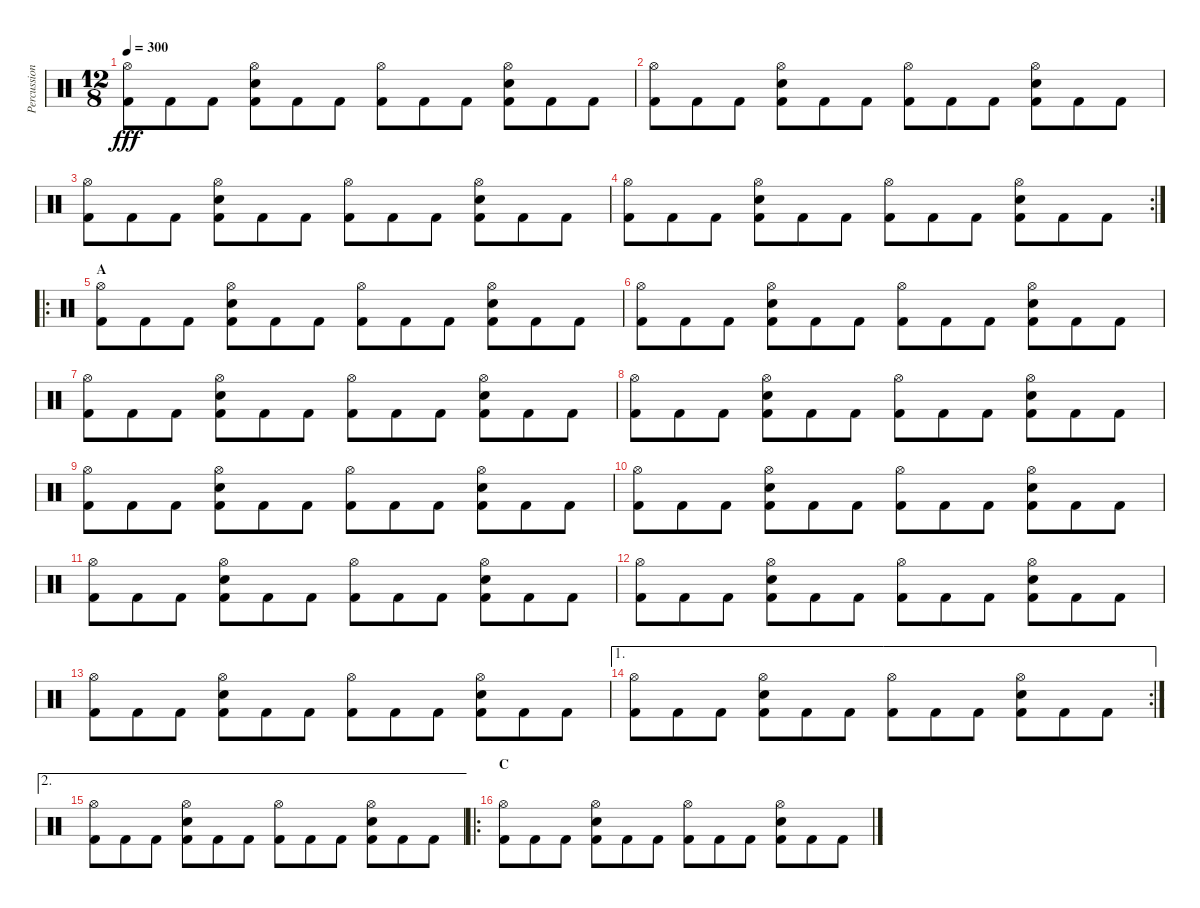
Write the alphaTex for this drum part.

\track ("Percussion" "Percussion") {instrument percussion}
\staff {score}
\articulation defaults
\ts (12 8)
\tempo 300
\clef neutral
\ks c
("Hi-Hat (open)" "Kick (hit) 2").8{dy fff} "Kick (hit) 2".8 "Kick (hit) 2".8 ("Hi-Hat (open)" "Snare (hit) 2" "Kick (hit) 2").8 "Kick (hit) 2".8 "Kick (hit) 2".8 ("Hi-Hat (open)" "Kick (hit) 2").8 "Kick (hit) 2".8 "Kick (hit) 2".8 ("Hi-Hat (open)" "Snare (hit) 2" "Kick (hit) 2").8 "Kick (hit) 2".8 "Kick (hit) 2".8 |
("Hi-Hat (open)" "Kick (hit) 2").8 "Kick (hit) 2".8 "Kick (hit) 2".8 ("Hi-Hat (open)" "Snare (hit) 2" "Kick (hit) 2").8 "Kick (hit) 2".8 "Kick (hit) 2".8 ("Hi-Hat (open)" "Kick (hit) 2").8 "Kick (hit) 2".8 "Kick (hit) 2".8 ("Hi-Hat (open)" "Snare (hit) 2" "Kick (hit) 2").8 "Kick (hit) 2".8 "Kick (hit) 2".8 |
("Hi-Hat (open)" "Kick (hit) 2").8 "Kick (hit) 2".8 "Kick (hit) 2".8 ("Hi-Hat (open)" "Snare (hit) 2" "Kick (hit) 2").8 "Kick (hit) 2".8 "Kick (hit) 2".8 ("Hi-Hat (open)" "Kick (hit) 2").8 "Kick (hit) 2".8 "Kick (hit) 2".8 ("Hi-Hat (open)" "Snare (hit) 2" "Kick (hit) 2").8 "Kick (hit) 2".8 "Kick (hit) 2".8 |
\rc 2
("Hi-Hat (open)" "Kick (hit) 2").8 "Kick (hit) 2".8 "Kick (hit) 2".8 ("Hi-Hat (open)" "Snare (hit) 2" "Kick (hit) 2").8 "Kick (hit) 2".8 "Kick (hit) 2".8 ("Hi-Hat (open)" "Kick (hit) 2").8 "Kick (hit) 2".8 "Kick (hit) 2".8 ("Hi-Hat (open)" "Snare (hit) 2" "Kick (hit) 2").8 "Kick (hit) 2".8 "Kick (hit) 2".8 |
\ro
\section ("" "A")
("Hi-Hat (open)" "Kick (hit) 2").8 "Kick (hit) 2".8 "Kick (hit) 2".8 ("Hi-Hat (open)" "Snare (hit) 2" "Kick (hit) 2").8 "Kick (hit) 2".8 "Kick (hit) 2".8 ("Hi-Hat (open)" "Kick (hit) 2").8 "Kick (hit) 2".8 "Kick (hit) 2".8 ("Hi-Hat (open)" "Snare (hit) 2" "Kick (hit) 2").8 "Kick (hit) 2".8 "Kick (hit) 2".8 |
("Hi-Hat (open)" "Kick (hit) 2").8 "Kick (hit) 2".8 "Kick (hit) 2".8 ("Hi-Hat (open)" "Snare (hit) 2" "Kick (hit) 2").8 "Kick (hit) 2".8 "Kick (hit) 2".8 ("Hi-Hat (open)" "Kick (hit) 2").8 "Kick (hit) 2".8 "Kick (hit) 2".8 ("Hi-Hat (open)" "Snare (hit) 2" "Kick (hit) 2").8 "Kick (hit) 2".8 "Kick (hit) 2".8 |
("Hi-Hat (open)" "Kick (hit) 2").8 "Kick (hit) 2".8 "Kick (hit) 2".8 ("Hi-Hat (open)" "Snare (hit) 2" "Kick (hit) 2").8 "Kick (hit) 2".8 "Kick (hit) 2".8 ("Hi-Hat (open)" "Kick (hit) 2").8 "Kick (hit) 2".8 "Kick (hit) 2".8 ("Hi-Hat (open)" "Snare (hit) 2" "Kick (hit) 2").8 "Kick (hit) 2".8 "Kick (hit) 2".8 |
("Hi-Hat (open)" "Kick (hit) 2").8 "Kick (hit) 2".8 "Kick (hit) 2".8 ("Hi-Hat (open)" "Snare (hit) 2" "Kick (hit) 2").8 "Kick (hit) 2".8 "Kick (hit) 2".8 ("Hi-Hat (open)" "Kick (hit) 2").8 "Kick (hit) 2".8 "Kick (hit) 2".8 ("Hi-Hat (open)" "Snare (hit) 2" "Kick (hit) 2").8 "Kick (hit) 2".8 "Kick (hit) 2".8 |
("Hi-Hat (open)" "Kick (hit) 2").8 "Kick (hit) 2".8 "Kick (hit) 2".8 ("Hi-Hat (open)" "Snare (hit) 2" "Kick (hit) 2").8 "Kick (hit) 2".8 "Kick (hit) 2".8 ("Hi-Hat (open)" "Kick (hit) 2").8 "Kick (hit) 2".8 "Kick (hit) 2".8 ("Hi-Hat (open)" "Snare (hit) 2" "Kick (hit) 2").8 "Kick (hit) 2".8 "Kick (hit) 2".8 |
("Hi-Hat (open)" "Kick (hit) 2").8 "Kick (hit) 2".8 "Kick (hit) 2".8 ("Hi-Hat (open)" "Snare (hit) 2" "Kick (hit) 2").8 "Kick (hit) 2".8 "Kick (hit) 2".8 ("Hi-Hat (open)" "Kick (hit) 2").8 "Kick (hit) 2".8 "Kick (hit) 2".8 ("Hi-Hat (open)" "Snare (hit) 2" "Kick (hit) 2").8 "Kick (hit) 2".8 "Kick (hit) 2".8 |
("Hi-Hat (open)" "Kick (hit) 2").8 "Kick (hit) 2".8 "Kick (hit) 2".8 ("Hi-Hat (open)" "Snare (hit) 2" "Kick (hit) 2").8 "Kick (hit) 2".8 "Kick (hit) 2".8 ("Hi-Hat (open)" "Kick (hit) 2").8 "Kick (hit) 2".8 "Kick (hit) 2".8 ("Hi-Hat (open)" "Snare (hit) 2" "Kick (hit) 2").8 "Kick (hit) 2".8 "Kick (hit) 2".8 |
("Hi-Hat (open)" "Kick (hit) 2").8 "Kick (hit) 2".8 "Kick (hit) 2".8 ("Hi-Hat (open)" "Snare (hit) 2" "Kick (hit) 2").8 "Kick (hit) 2".8 "Kick (hit) 2".8 ("Hi-Hat (open)" "Kick (hit) 2").8 "Kick (hit) 2".8 "Kick (hit) 2".8 ("Hi-Hat (open)" "Snare (hit) 2" "Kick (hit) 2").8 "Kick (hit) 2".8 "Kick (hit) 2".8 |
("Hi-Hat (open)" "Kick (hit) 2").8 "Kick (hit) 2".8 "Kick (hit) 2".8 ("Hi-Hat (open)" "Snare (hit) 2" "Kick (hit) 2").8 "Kick (hit) 2".8 "Kick (hit) 2".8 ("Hi-Hat (open)" "Kick (hit) 2").8 "Kick (hit) 2".8 "Kick (hit) 2".8 ("Hi-Hat (open)" "Snare (hit) 2" "Kick (hit) 2").8 "Kick (hit) 2".8 "Kick (hit) 2".8 |
\ae 1
\rc 2
("Hi-Hat (open)" "Kick (hit) 2").8 "Kick (hit) 2".8 "Kick (hit) 2".8 ("Hi-Hat (open)" "Snare (hit) 2" "Kick (hit) 2").8 "Kick (hit) 2".8 "Kick (hit) 2".8 ("Hi-Hat (open)" "Kick (hit) 2").8 "Kick (hit) 2".8 "Kick (hit) 2".8 ("Hi-Hat (open)" "Snare (hit) 2" "Kick (hit) 2").8 "Kick (hit) 2".8 "Kick (hit) 2".8 |
\ae 2
("Hi-Hat (open)" "Kick (hit) 2").8 "Kick (hit) 2".8 "Kick (hit) 2".8 ("Hi-Hat (open)" "Snare (hit) 2" "Kick (hit) 2").8 "Kick (hit) 2".8 "Kick (hit) 2".8 ("Hi-Hat (open)" "Kick (hit) 2").8 "Kick (hit) 2".8 "Kick (hit) 2".8 ("Hi-Hat (open)" "Snare (hit) 2" "Kick (hit) 2").8 "Kick (hit) 2".8 "Kick (hit) 2".8 |
\ro
\section ("" "C")
("Hi-Hat (open)" "Kick (hit) 2").8 "Kick (hit) 2".8 "Kick (hit) 2".8 ("Hi-Hat (open)" "Snare (hit) 2" "Kick (hit) 2").8 "Kick (hit) 2".8 "Kick (hit) 2".8 ("Hi-Hat (open)" "Kick (hit) 2").8 "Kick (hit) 2".8 "Kick (hit) 2".8 ("Hi-Hat (open)" "Snare (hit) 2" "Kick (hit) 2").8 "Kick (hit) 2".8 "Kick (hit) 2".8
